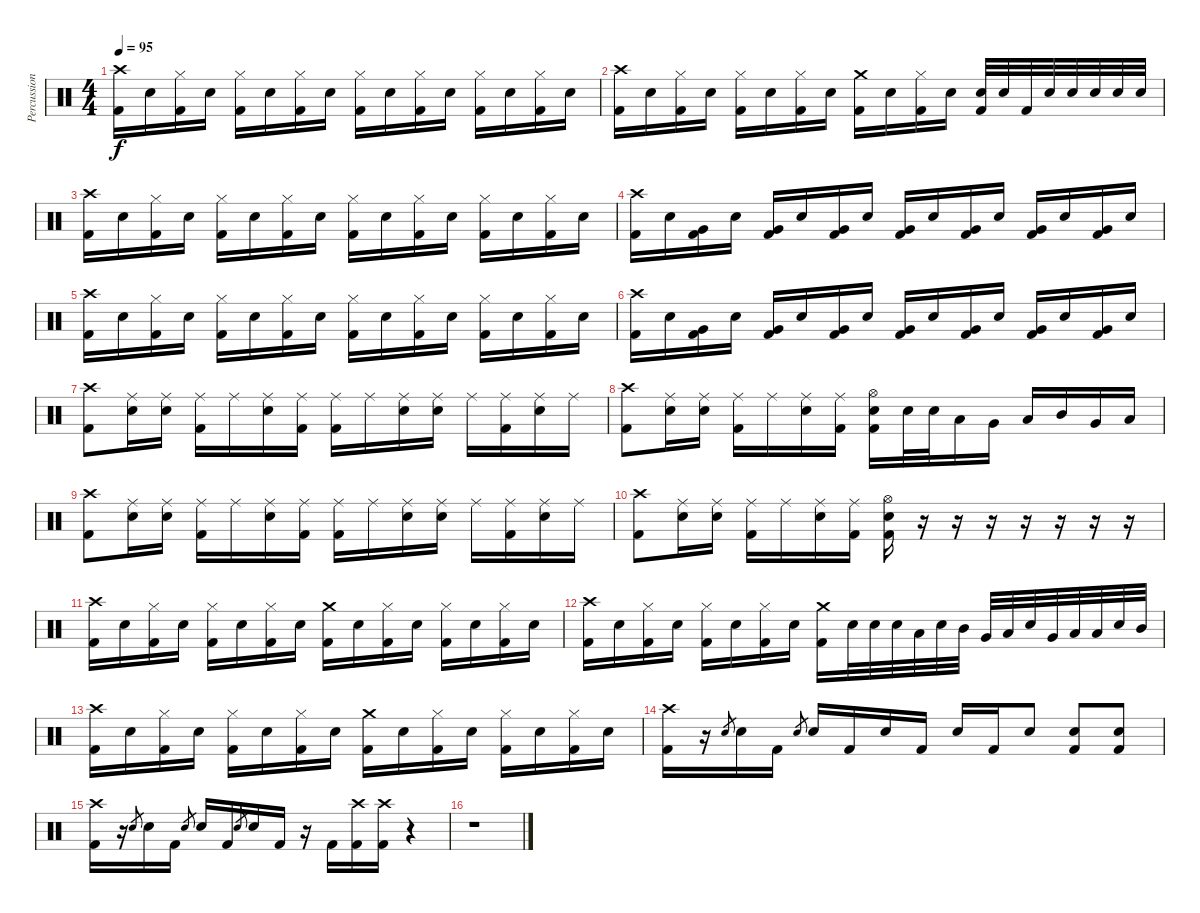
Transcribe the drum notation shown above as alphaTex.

\track ("Percussions" "Percussion") {instrument percussion}
\staff {score}
\articulation defaults
\ts (4 4)
\tempo 95
\clef neutral
\ks c
("Crash high (hit)" "Kick (hit) 2").16{dy f} "Electric Snare (hit)".16 ("Hi-Hat (closed)" "Kick (hit) 2").16 "Electric Snare (hit)".16 ("Hi-Hat (closed)" "Kick (hit) 2").16 "Electric Snare (hit)".16 ("Hi-Hat (closed)" "Kick (hit) 2").16 "Electric Snare (hit)".16 ("Hi-Hat (closed)" "Kick (hit) 2").16 "Electric Snare (hit)".16 ("Hi-Hat (closed)" "Kick (hit) 2").16 "Electric Snare (hit)".16 ("Hi-Hat (closed)" "Kick (hit) 2").16 "Electric Snare (hit)".16 ("Hi-Hat (closed)" "Kick (hit) 2").16 "Electric Snare (hit)".16 |
("Crash high (hit)" "Kick (hit) 2").16 "Electric Snare (hit)".16 ("Hi-Hat (closed)" "Kick (hit) 2").16 "Electric Snare (hit)".16 ("Hi-Hat (closed)" "Kick (hit) 2").16 "Electric Snare (hit)".16 ("Hi-Hat (closed)" "Kick (hit) 2").16 "Electric Snare (hit)".16 ("Crash medium (hit)" "Kick (hit) 2").16 "Electric Snare (hit)".16 ("Hi-Hat (closed)" "Kick (hit) 2").16 "Electric Snare (hit)".16 ("Electric Snare (hit)" "Kick (hit) 2").32 "Electric Snare (hit)".32 "Kick (hit) 2".32 "Electric Snare (hit)".32 "Electric Snare (hit)".32 "Electric Snare (hit)".32 "Electric Snare (hit)".32 "Electric Snare (hit)".32 |
("Crash high (hit)" "Kick (hit) 2").16 "Electric Snare (hit)".16 ("Hi-Hat (closed)" "Kick (hit) 2").16 "Electric Snare (hit)".16 ("Hi-Hat (closed)" "Kick (hit) 2").16 "Electric Snare (hit)".16 ("Hi-Hat (closed)" "Kick (hit) 2").16 "Electric Snare (hit)".16 ("Hi-Hat (closed)" "Kick (hit) 2").16 "Electric Snare (hit)".16 ("Hi-Hat (closed)" "Kick (hit) 2").16 "Electric Snare (hit)".16 ("Hi-Hat (closed)" "Kick (hit) 2").16 "Electric Snare (hit)".16 ("Hi-Hat (closed)" "Kick (hit) 2").16 "Electric Snare (hit)".16 |
("Crash high (hit)" "Kick (hit) 2").16 "Electric Snare (hit)".16 ("Very Low Tom (hit)" "Kick (hit) 2").16 "Electric Snare (hit)".16 ("Very Low Tom (hit)" "Kick (hit) 2").16 "Electric Snare (hit)".16 ("Very Low Tom (hit)" "Kick (hit) 2").16 "Electric Snare (hit)".16 ("Very Low Tom (hit)" "Kick (hit) 2").16 "Electric Snare (hit)".16 ("Very Low Tom (hit)" "Kick (hit) 2").16 "Electric Snare (hit)".16 ("Very Low Tom (hit)" "Kick (hit) 2").16 "Electric Snare (hit)".16 ("Very Low Tom (hit)" "Kick (hit) 2").16 "Electric Snare (hit)".16 |
("Crash high (hit)" "Kick (hit) 2").16 "Electric Snare (hit)".16 ("Hi-Hat (closed)" "Kick (hit) 2").16 "Electric Snare (hit)".16 ("Hi-Hat (closed)" "Kick (hit) 2").16 "Electric Snare (hit)".16 ("Hi-Hat (closed)" "Kick (hit) 2").16 "Electric Snare (hit)".16 ("Hi-Hat (closed)" "Kick (hit) 2").16 "Electric Snare (hit)".16 ("Hi-Hat (closed)" "Kick (hit) 2").16 "Electric Snare (hit)".16 ("Hi-Hat (closed)" "Kick (hit) 2").16 "Electric Snare (hit)".16 ("Hi-Hat (closed)" "Kick (hit) 2").16 "Electric Snare (hit)".16 |
("Crash high (hit)" "Kick (hit) 2").16 "Electric Snare (hit)".16 ("Very Low Tom (hit)" "Kick (hit) 2").16 "Electric Snare (hit)".16 ("Very Low Tom (hit)" "Kick (hit) 2").16 "Electric Snare (hit)".16 ("Very Low Tom (hit)" "Kick (hit) 2").16 "Electric Snare (hit)".16 ("Very Low Tom (hit)" "Kick (hit) 2").16 "Electric Snare (hit)".16 ("Very Low Tom (hit)" "Kick (hit) 2").16 "Electric Snare (hit)".16 ("Very Low Tom (hit)" "Kick (hit) 2").16 "Electric Snare (hit)".16 ("Very Low Tom (hit)" "Kick (hit) 2").16 "Electric Snare (hit)".16 |
("Crash high (hit)" "Kick (hit) 2").8 ("Ride (middle)" "Electric Snare (hit)").16 ("Ride (middle)" "Electric Snare (hit)").16 ("Ride (middle)" "Kick (hit) 2").16 "Ride (middle)".16 ("Ride (middle)" "Electric Snare (hit)").16 ("Ride (middle)" "Kick (hit) 2").16 ("Ride (middle)" "Kick (hit) 2").16 "Ride (middle)".16 ("Ride (middle)" "Electric Snare (hit)").16 ("Ride (middle)" "Electric Snare (hit)").16 "Ride (middle)".16 ("Ride (middle)" "Kick (hit) 2").16 ("Ride (middle)" "Electric Snare (hit)").16 "Ride (middle)".16 |
("Crash high (hit)" "Kick (hit) 2").8 ("Ride (middle)" "Electric Snare (hit)").16 ("Ride (middle)" "Electric Snare (hit)").16 ("Ride (middle)" "Kick (hit) 2").16 "Ride (middle)".16 ("Ride (middle)" "Electric Snare (hit)").16 ("Ride (middle)" "Kick (hit) 2").16 ("Hi-Hat (open)" "Electric Snare (hit)" "Kick (hit) 2").16 "Electric Snare (hit)".32 "Electric Snare (hit)".32 "Low Floor Tom (hit)".16 "Very Low Tom (hit)".16 "Low Tom (hit)".16 "Mid Tom (hit)".16 "Very Low Tom (hit)".16 "Low Floor Tom (hit)".16 |
("Crash high (hit)" "Kick (hit) 2").8 ("Ride (middle)" "Electric Snare (hit)").16 ("Ride (middle)" "Electric Snare (hit)").16 ("Ride (middle)" "Kick (hit) 2").16 "Ride (middle)".16 ("Ride (middle)" "Electric Snare (hit)").16 ("Ride (middle)" "Kick (hit) 2").16 ("Ride (middle)" "Kick (hit) 2").16 "Ride (middle)".16 ("Ride (middle)" "Electric Snare (hit)").16 ("Ride (middle)" "Electric Snare (hit)").16 "Ride (middle)".16 ("Ride (middle)" "Kick (hit) 2").16 ("Ride (middle)" "Electric Snare (hit)").16 "Ride (middle)".16 |
("Crash high (hit)" "Kick (hit) 2").8 ("Ride (middle)" "Electric Snare (hit)").16 ("Ride (middle)" "Electric Snare (hit)").16 ("Ride (middle)" "Kick (hit) 2").16 "Ride (middle)".16 ("Ride (middle)" "Electric Snare (hit)").16 ("Ride (middle)" "Kick (hit) 2").16 ("Hi-Hat (open)" "Electric Snare (hit)" "Kick (hit) 2").16 r.16 r.16 r.16 r.16 r.16 r.16 r.16 |
("Crash high (hit)" "Kick (hit) 2").16 "Electric Snare (hit)".16 ("Hi-Hat (closed)" "Kick (hit) 2").16 "Electric Snare (hit)".16 ("Hi-Hat (closed)" "Kick (hit) 2").16 "Electric Snare (hit)".16 ("Hi-Hat (closed)" "Kick (hit) 2").16 "Electric Snare (hit)".16 ("Crash medium (hit)" "Kick (hit) 2").16 "Electric Snare (hit)".16 ("Hi-Hat (closed)" "Kick (hit) 2").16 "Electric Snare (hit)".16 ("Hi-Hat (closed)" "Kick (hit) 2").16 "Electric Snare (hit)".16 ("Hi-Hat (closed)" "Kick (hit) 2").16 "Electric Snare (hit)".16 |
("Crash high (hit)" "Kick (hit) 2").16 "Electric Snare (hit)".16 ("Hi-Hat (closed)" "Kick (hit) 2").16 "Electric Snare (hit)".16 ("Hi-Hat (closed)" "Kick (hit) 2").16 "Electric Snare (hit)".16 ("Hi-Hat (closed)" "Kick (hit) 2").16 "Electric Snare (hit)".16 ("Crash medium (hit)" "Kick (hit) 2").16 "Electric Snare (hit)".32 "Electric Snare (hit)".32 "Electric Snare (hit)".32 "Low Tom (hit)".32 "Electric Snare (hit)".32 "Mid Tom (hit)".32 "Very Low Tom (hit)".32 "Low Tom (hit)".32 "Electric Snare (hit)".32 "Very Low Tom (hit)".32 "Low Tom (hit)".32 "Low Floor Tom (hit)".32 "Electric Snare (hit)".32 "Mid Tom (hit)".32 |
("Crash high (hit)" "Kick (hit) 2").16 "Electric Snare (hit)".16 ("Hi-Hat (closed)" "Kick (hit) 2").16 "Electric Snare (hit)".16 ("Hi-Hat (closed)" "Kick (hit) 2").16 "Electric Snare (hit)".16 ("Hi-Hat (closed)" "Kick (hit) 2").16 "Electric Snare (hit)".16 ("Crash medium (hit)" "Kick (hit) 2").16 "Electric Snare (hit)".16 ("Hi-Hat (closed)" "Kick (hit) 2").16 "Electric Snare (hit)".16 ("Hi-Hat (closed)" "Kick (hit) 2").16 "Electric Snare (hit)".16 ("Hi-Hat (closed)" "Kick (hit) 2").16 "Electric Snare (hit)".16 |
("Crash high (hit)" "Kick (hit) 2").16 r.16 "Electric Snare (hit)".8{gr} "Electric Snare (hit)".16 "Kick (hit) 2".16 "Electric Snare (hit)".8{gr} "Electric Snare (hit)".16 "Kick (hit) 2".16 "Electric Snare (hit)".16 "Kick (hit) 2".16 "Electric Snare (hit)"{x}.16 "Kick (hit) 2".16 "Electric Snare (hit)".8 ("Electric Snare (hit)" "Kick (hit) 2").8 ("Electric Snare (hit)"{x} "Kick (hit) 2").8 |
("Crash high (hit)" "Kick (hit) 2").16 r.16 "Electric Snare (hit)".8{gr} "Electric Snare (hit)".16 "Kick (hit) 2".16 "Electric Snare (hit)".8{gr} "Electric Snare (hit)".16 "Kick (hit) 2".16 "Electric Snare (hit)".8{gr} "Electric Snare (hit)".16 "Kick (hit) 2".16 r.16 "Kick (hit) 2".16 ("Crash high (hit)" "Kick (hit) 2").16 ("Crash high (hit)" "Kick (hit) 2").16 r.4 |
r.1
